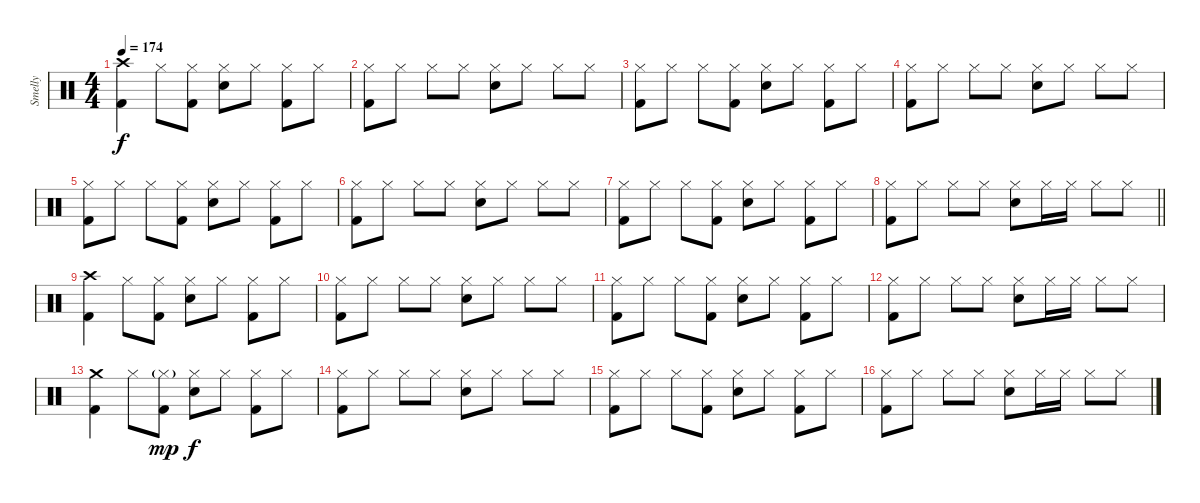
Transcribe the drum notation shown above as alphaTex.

\track ("Smelly" "Smelly") {instrument percussion}
\staff {score}
\articulation defaults
\ts (4 4)
\tempo 174
\clef neutral
\ks c
("Crash high (hit)" "Kick (hit) 2").4{dy f} "Hi-Hat (closed)".8 ("Hi-Hat (closed)" "Kick (hit) 2").8 ("Hi-Hat (closed)" "Electric Snare (hit)").8 "Hi-Hat (closed)".8 ("Hi-Hat (closed)" "Kick (hit) 2").8 "Hi-Hat (closed)".8 |
("Hi-Hat (closed)" "Kick (hit) 2").8 "Hi-Hat (closed)".8 "Hi-Hat (closed)".8 "Hi-Hat (closed)".8 ("Hi-Hat (closed)" "Electric Snare (hit)").8 "Hi-Hat (closed)".8 "Hi-Hat (closed)".8 "Hi-Hat (closed)".8 |
("Hi-Hat (closed)" "Kick (hit) 2").8 "Hi-Hat (closed)".8 "Hi-Hat (closed)".8 ("Hi-Hat (closed)" "Kick (hit) 2").8 ("Hi-Hat (closed)" "Electric Snare (hit)").8 "Hi-Hat (closed)".8 ("Hi-Hat (closed)" "Kick (hit) 2").8 "Hi-Hat (closed)".8 |
("Hi-Hat (closed)" "Kick (hit) 2").8 "Hi-Hat (closed)".8 "Hi-Hat (closed)".8 "Hi-Hat (closed)".8 ("Hi-Hat (closed)" "Electric Snare (hit)").8 "Hi-Hat (closed)".8 "Hi-Hat (closed)".8 "Hi-Hat (closed)".8 |
("Hi-Hat (closed)" "Kick (hit) 2").8 "Hi-Hat (closed)".8 "Hi-Hat (closed)".8 ("Hi-Hat (closed)" "Kick (hit) 2").8 ("Hi-Hat (closed)" "Electric Snare (hit)").8 "Hi-Hat (closed)".8 ("Hi-Hat (closed)" "Kick (hit) 2").8 "Hi-Hat (closed)".8 |
("Hi-Hat (closed)" "Kick (hit) 2").8 "Hi-Hat (closed)".8 "Hi-Hat (closed)".8 "Hi-Hat (closed)".8 ("Hi-Hat (closed)" "Electric Snare (hit)").8 "Hi-Hat (closed)".8 "Hi-Hat (closed)".8 "Hi-Hat (closed)".8 |
("Hi-Hat (closed)" "Kick (hit) 2").8 "Hi-Hat (closed)".8 "Hi-Hat (closed)".8 ("Hi-Hat (closed)" "Kick (hit) 2").8 ("Hi-Hat (closed)" "Electric Snare (hit)").8 "Hi-Hat (closed)".8 ("Hi-Hat (closed)" "Kick (hit) 2").8 "Hi-Hat (closed)".8 |
\barLineRight lightlight
("Hi-Hat (closed)" "Kick (hit) 2").8 "Hi-Hat (closed)".8 "Hi-Hat (closed)".8 "Hi-Hat (closed)".8 ("Hi-Hat (closed)" "Electric Snare (hit)").8 "Hi-Hat (closed)".16 "Hi-Hat (closed)".16 "Hi-Hat (closed)".8 "Hi-Hat (closed)".8 |
\section ("" "")
("Crash high (hit)" "Kick (hit) 2").4 "Hi-Hat (closed)".8 ("Hi-Hat (closed)" "Kick (hit) 2").8 ("Hi-Hat (closed)" "Electric Snare (hit)").8 "Hi-Hat (closed)".8 ("Hi-Hat (closed)" "Kick (hit) 2").8 "Hi-Hat (closed)".8 |
("Hi-Hat (closed)" "Kick (hit) 2").8 "Hi-Hat (closed)".8 "Hi-Hat (closed)".8 "Hi-Hat (closed)".8 ("Hi-Hat (closed)" "Electric Snare (hit)").8 "Hi-Hat (closed)".8 "Hi-Hat (closed)".8 "Hi-Hat (closed)".8 |
("Hi-Hat (closed)" "Kick (hit) 2").8 "Hi-Hat (closed)".8 "Hi-Hat (closed)".8 ("Hi-Hat (closed)" "Kick (hit) 2").8 ("Hi-Hat (closed)" "Electric Snare (hit)").8 "Hi-Hat (closed)".8 ("Hi-Hat (closed)" "Kick (hit) 2").8 "Hi-Hat (closed)".8 |
("Hi-Hat (closed)" "Kick (hit) 2").8 "Hi-Hat (closed)".8 "Hi-Hat (closed)".8 "Hi-Hat (closed)".8 ("Hi-Hat (closed)" "Electric Snare (hit)").8 "Hi-Hat (closed)".16 "Hi-Hat (closed)".16 "Hi-Hat (closed)".8 "Hi-Hat (closed)".8 |
("Crash medium (hit)" "Kick (hit) 2").4 "Hi-Hat (closed)".8 ("Hi-Hat (closed)"{g} "Kick (hit) 2").8{dy mp} ("Hi-Hat (closed)" "Electric Snare (hit)").8{dy f} "Hi-Hat (closed)".8 ("Hi-Hat (closed)" "Kick (hit) 2").8 "Hi-Hat (closed)".8 |
("Hi-Hat (closed)" "Kick (hit) 2").8 "Hi-Hat (closed)".8 "Hi-Hat (closed)".8 "Hi-Hat (closed)".8 ("Hi-Hat (closed)" "Electric Snare (hit)").8 "Hi-Hat (closed)".8 "Hi-Hat (closed)".8 "Hi-Hat (closed)".8 |
("Hi-Hat (closed)" "Kick (hit) 2").8 "Hi-Hat (closed)".8 "Hi-Hat (closed)".8 ("Hi-Hat (closed)" "Kick (hit) 2").8 ("Hi-Hat (closed)" "Electric Snare (hit)").8 "Hi-Hat (closed)".8 ("Hi-Hat (closed)" "Kick (hit) 2").8 "Hi-Hat (closed)".8 |
("Hi-Hat (closed)" "Kick (hit) 2").8 "Hi-Hat (closed)".8 "Hi-Hat (closed)".8 "Hi-Hat (closed)".8 ("Hi-Hat (closed)" "Electric Snare (hit)").8 "Hi-Hat (closed)".16 "Hi-Hat (closed)".16 "Hi-Hat (closed)".8 "Hi-Hat (closed)".8
